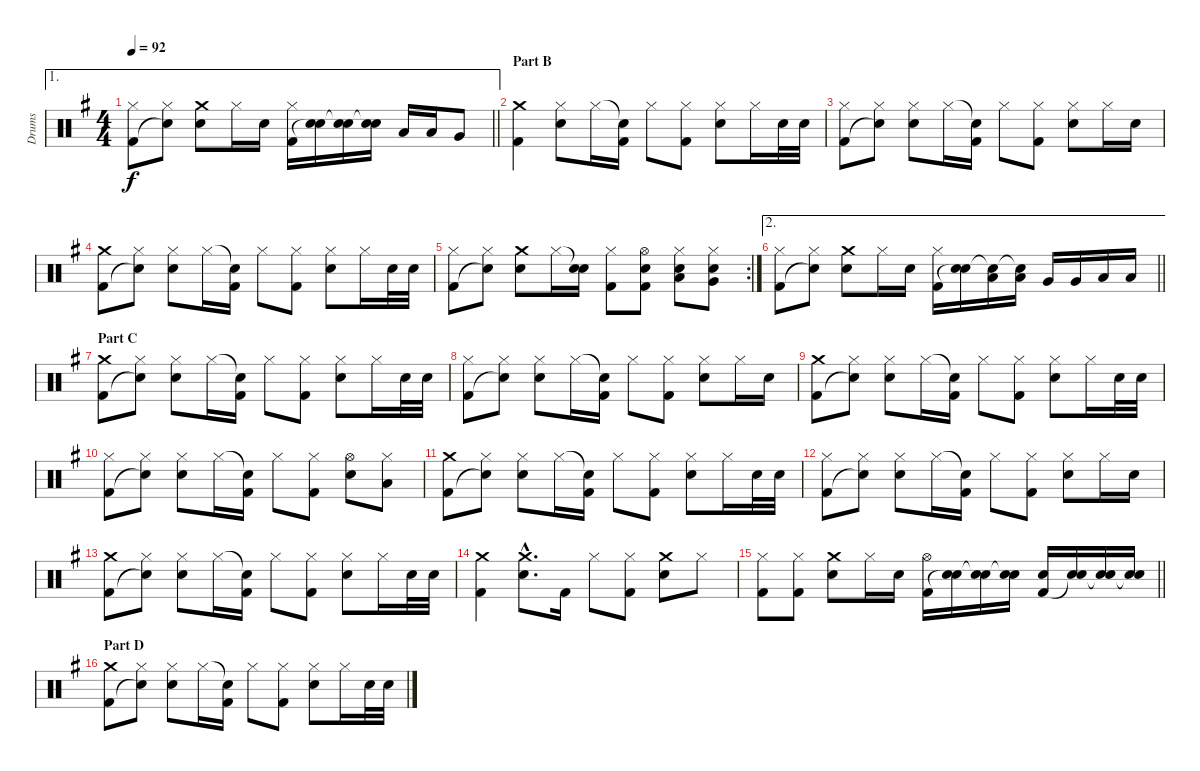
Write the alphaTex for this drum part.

\track ("Drums" "Drums") {instrument percussion}
\staff {score}
\articulation defaults
\ae 1
\ts (4 4)
\tempo 92
\clef neutral
\barLineRight lightlight
\ks g
("Hi-Hat (closed)" "Kick (hit) 2").8{dy f} ("Hi-Hat (closed)" "Snare (hit)"{t}).8 ("Crash medium (hit)" "Electric Snare (hit)").8 "Hi-Hat (closed)".16 "Electric Snare (hit)".16 ("Hi-Hat (closed)" "Kick (hit) 2").16 ("Electric Snare (hit)" "Snare (hit)"{t}).16 ("Electric Snare (hit)" "Snare (hit)"{t}).16 ("Electric Snare (hit)" "Snare (hit)"{t}).16 "Low Tom (hit)".16 "Low Tom (hit)".16 "Very Low Tom (hit)".8 |
\section ("" "Part B")
("Crash medium (hit)" "Kick (hit) 2").4 ("Hi-Hat (closed)" "Electric Snare (hit)").8 "Hi-Hat (closed)".16 ("Snare (hit)"{t} "Kick (hit) 2").16 "Hi-Hat (closed)".8 ("Hi-Hat (closed)" "Kick (hit) 2").8 ("Hi-Hat (closed)" "Electric Snare (hit)").8 "Hi-Hat (closed)".16 "Electric Snare (hit)".32 "Electric Snare (hit)".32 |
("Hi-Hat (closed)" "Kick (hit) 2").8 ("Hi-Hat (closed)" "Snare (hit)"{t}).8 ("Hi-Hat (closed)" "Electric Snare (hit)").8 "Hi-Hat (closed)".16 ("Snare (hit)"{t} "Kick (hit) 2").16 "Hi-Hat (closed)".8 ("Hi-Hat (closed)" "Kick (hit) 2").8 ("Hi-Hat (closed)" "Electric Snare (hit)").8 "Hi-Hat (closed)".16 "Electric Snare (hit)".16 |
("Crash medium (hit)" "Kick (hit) 2").8 ("Hi-Hat (closed)" "Snare (hit)"{t}).8 ("Hi-Hat (closed)" "Electric Snare (hit)").8 "Hi-Hat (closed)".16 ("Snare (hit)"{t} "Kick (hit) 2").16 "Hi-Hat (closed)".8 ("Hi-Hat (closed)" "Kick (hit) 2").8 ("Hi-Hat (closed)" "Electric Snare (hit)").8 "Hi-Hat (closed)".16 "Electric Snare (hit)".32 "Electric Snare (hit)".32 |
\rc 2
("Hi-Hat (closed)" "Kick (hit) 2").8 ("Hi-Hat (closed)" "Snare (hit)"{t}).8 ("Crash medium (hit)" "Electric Snare (hit)").8 "Hi-Hat (closed)".16 ("Snare (hit)"{t} "Electric Snare (hit)").16 ("Hi-Hat (closed)" "Kick (hit) 2").8 ("Hi-Hat (open)" "Electric Snare (hit)" "Kick (hit) 2").8 ("Hi-Hat (closed)" "Electric Snare (hit)" "Low Tom (hit)").8 ("Hi-Hat (closed)" "Electric Snare (hit)" "Very Low Tom (hit)").8 |
\ae 2
\barLineRight lightlight
("Hi-Hat (closed)" "Kick (hit) 2").8 ("Hi-Hat (closed)" "Snare (hit)"{t}).8 ("Crash medium (hit)" "Electric Snare (hit)").8 "Hi-Hat (closed)".16 "Electric Snare (hit)".16 ("Hi-Hat (closed)" "Kick (hit) 2").16 ("Electric Snare (hit)" "Snare (hit)"{t}).16 ("Low Tom (hit)" "Snare (hit)"{t}).16 ("Low Tom (hit)" "Snare (hit)"{t}).16 "Very Low Tom (hit)".16 "Very Low Tom (hit)".16 "Low Floor Tom (hit)".16 "Low Floor Tom (hit)".16 |
\section ("" "Part C")
("Crash medium (hit)" "Kick (hit) 2").8 ("Hi-Hat (closed)" "Snare (hit)"{t}).8 ("Hi-Hat (closed)" "Electric Snare (hit)").8 "Hi-Hat (closed)".16 ("Snare (hit)"{t} "Kick (hit) 2").16 "Hi-Hat (closed)".8 ("Hi-Hat (closed)" "Kick (hit) 2").8 ("Hi-Hat (closed)" "Electric Snare (hit)").8 "Hi-Hat (closed)".16 "Electric Snare (hit)".32 "Electric Snare (hit)".32 |
("Hi-Hat (closed)" "Kick (hit) 2").8 ("Hi-Hat (closed)" "Snare (hit)"{t}).8 ("Hi-Hat (closed)" "Electric Snare (hit)").8 "Hi-Hat (closed)".16 ("Snare (hit)"{t} "Kick (hit) 2").16 "Hi-Hat (closed)".8 ("Hi-Hat (closed)" "Kick (hit) 2").8 ("Hi-Hat (closed)" "Electric Snare (hit)").8 "Hi-Hat (closed)".16 "Electric Snare (hit)".16 |
("Crash medium (hit)" "Kick (hit) 2").8 ("Hi-Hat (closed)" "Snare (hit)"{t}).8 ("Hi-Hat (closed)" "Electric Snare (hit)").8 "Hi-Hat (closed)".16 ("Snare (hit)"{t} "Kick (hit) 2").16 "Hi-Hat (closed)".8 ("Hi-Hat (closed)" "Kick (hit) 2").8 ("Hi-Hat (closed)" "Electric Snare (hit)").8 "Hi-Hat (closed)".16 "Electric Snare (hit)".32 "Electric Snare (hit)".32 |
("Hi-Hat (closed)" "Kick (hit) 2").8 ("Hi-Hat (closed)" "Snare (hit)"{t}).8 ("Hi-Hat (closed)" "Electric Snare (hit)").8 "Hi-Hat (closed)".16 ("Snare (hit)"{t} "Kick (hit) 2").16 "Hi-Hat (closed)".8 ("Hi-Hat (closed)" "Kick (hit) 2").8 ("Hi-Hat (open)" "Electric Snare (hit)").8 ("Hi-Hat (closed)" "Low Tom (hit)").8 |
("Crash medium (hit)" "Kick (hit) 2").8 ("Hi-Hat (closed)" "Snare (hit)"{t}).8 ("Hi-Hat (closed)" "Electric Snare (hit)").8 "Hi-Hat (closed)".16 ("Snare (hit)"{t} "Kick (hit) 2").16 "Hi-Hat (closed)".8 ("Hi-Hat (closed)" "Kick (hit) 2").8 ("Hi-Hat (closed)" "Electric Snare (hit)").8 "Hi-Hat (closed)".16 "Electric Snare (hit)".32 "Electric Snare (hit)".32 |
("Hi-Hat (closed)" "Kick (hit) 2").8 ("Hi-Hat (closed)" "Snare (hit)"{t}).8 ("Hi-Hat (closed)" "Electric Snare (hit)").8 "Hi-Hat (closed)".16 ("Snare (hit)"{t} "Kick (hit) 2").16 "Hi-Hat (closed)".8 ("Hi-Hat (closed)" "Kick (hit) 2").8 ("Hi-Hat (closed)" "Electric Snare (hit)").8 "Hi-Hat (closed)".16 "Electric Snare (hit)".16 |
("Crash medium (hit)" "Kick (hit) 2").8 ("Hi-Hat (closed)" "Snare (hit)"{t}).8 ("Hi-Hat (closed)" "Electric Snare (hit)").8 "Hi-Hat (closed)".16 ("Snare (hit)"{t} "Kick (hit) 2").16 "Hi-Hat (closed)".8 ("Hi-Hat (closed)" "Kick (hit) 2").8 ("Hi-Hat (closed)" "Electric Snare (hit)").8 "Hi-Hat (closed)".16 "Electric Snare (hit)".32 "Electric Snare (hit)".32 |
("Crash medium (hit)" "Kick (hit) 2").4 ("Crash medium (hit)"{hac} "Electric Snare (hit)"{hac}).8{d} "Kick (hit) 2".16 "Hi-Hat (closed)".8 ("Hi-Hat (closed)" "Kick (hit) 2").8 ("Crash medium (hit)" "Electric Snare (hit)").8 "Hi-Hat (closed)".8 |
\barLineRight lightlight
("Hi-Hat (closed)" "Kick (hit) 2").8 ("Hi-Hat (closed)" "Kick (hit) 2").8 ("Crash medium (hit)" "Electric Snare (hit)").8 "Hi-Hat (closed)".16 "Electric Snare (hit)".16 ("Hi-Hat (open)" "Kick (hit) 2").16 ("Electric Snare (hit)" "Snare (hit)"{t}).16 ("Electric Snare (hit)" "Snare (hit)"{t}).16 ("Electric Snare (hit)" "Snare (hit)"{t}).16 ("Electric Snare (hit)" "Kick (hit) 2").16 ("Electric Snare (hit)" "Snare (hit)"{t}).16 ("Electric Snare (hit)" "Snare (hit)"{t}).16 ("Electric Snare (hit)" "Snare (hit)"{t}).16 |
\section ("" "Part D")
("Crash medium (hit)" "Kick (hit) 2").8 ("Hi-Hat (closed)" "Snare (hit)"{t}).8 ("Hi-Hat (closed)" "Electric Snare (hit)").8 "Hi-Hat (closed)".16 ("Snare (hit)"{t} "Kick (hit) 2").16 "Hi-Hat (closed)".8 ("Hi-Hat (closed)" "Kick (hit) 2").8 ("Hi-Hat (closed)" "Electric Snare (hit)").8 "Hi-Hat (closed)".16 "Electric Snare (hit)".32 "Electric Snare (hit)".32
